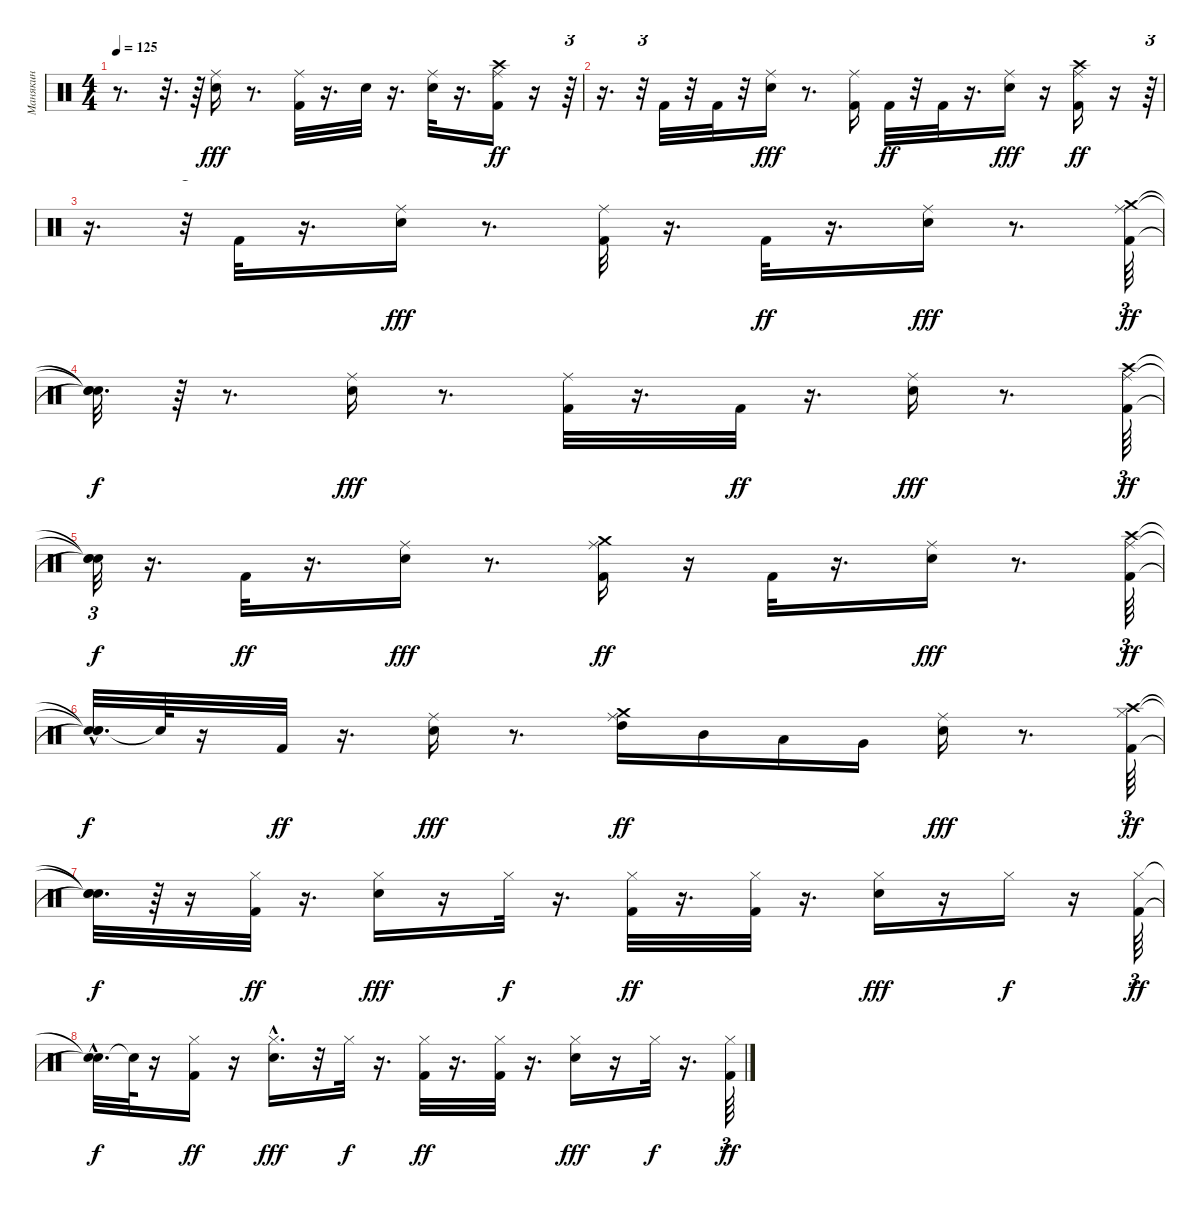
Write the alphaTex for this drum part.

\track ("Манякин" "Манякин") {instrument percussion}
\staff {score}
\articulation defaults
\ts (4 4)
\tempo 125
\clef neutral
\ks c
r.8{d dy ff} r.32{d} r.64 ("Snare (hit) 2" "Ride (middle)").16{dy fff} r.8{d} ("Kick (hit) 2" "Ride (middle)").32 r.16{d} "Snare (hit) 2".32 r.16{d} ("Snare (hit) 2" "Ride (middle)").32 r.16{d} ("Kick (hit) 2" "Ride (middle)" "Crash high (hit)").16{dy ff} r.16 r.64{tu (3 2)} |
r.16{d} r.32{tu (3 2)} "Kick (hit) 2".32 r.32 "Kick (hit) 2".32 r.32 ("Snare (hit) 2" "Ride (middle)").16{dy fff} r.8{d} ("Kick (hit) 2" "Ride (middle)").16 "Kick (hit) 2".32{dy ff} r.32 "Kick (hit) 2".32 r.16{d} ("Snare (hit) 2" "Ride (middle)").16{dy fff} r.16 ("Kick (hit) 2" "Ride (middle)" "Crash high (hit)").16{dy ff} r.16 r.64{tu (3 2)} |
r.16{d} r.32{tu (3 2)} "Kick (hit) 2".32 r.16{d} ("Snare (hit) 2" "Ride (middle)").16{dy fff} r.8{d} ("Kick (hit) 2" "Ride (middle)").32 r.16{d} "Kick (hit) 2".32{dy ff} r.16{d} ("Snare (hit) 2" "Ride (middle)").16{dy fff} r.8{d} ("Kick (hit) 2" "Ride (middle)" "Crash medium (hit)").64{tu (3 2) dy ff} |
("Snare (hit)"{t} "Snare (hit)"{t} "Snare (hit)"{t}).32{d dy f} r.64 r.8{d} ("Snare (hit) 2" "Ride (middle)").16{dy fff} r.8{d} ("Kick (hit) 2" "Ride (middle)").32 r.16{d} "Kick (hit) 2".32{dy ff} r.16{d} ("Snare (hit) 2" "Ride (middle)").16{dy fff} r.8{d} ("Kick (hit) 2" "Ride (middle)" "Crash high (hit)").64{tu (3 2) dy ff} |
("Snare (hit)"{t} "Snare (hit)"{t} "Snare (hit)"{t}).32{tu (3 2) dy f} r.16{d} "Kick (hit) 2".32{dy ff} r.16{d} ("Snare (hit) 2" "Ride (middle)").16{dy fff} r.8{d} ("Kick (hit) 2" "Ride (middle)" "Crash medium (hit)").16{dy ff} r.16 "Kick (hit) 2".32 r.16{d} ("Snare (hit) 2" "Ride (middle)").16{dy fff} r.8{d} ("Kick (hit) 2" "Ride (middle)" "Crash high (hit)").64{tu (3 2) dy ff} |
("Snare (hit)"{t} "Snare (hit)"{t} "Snare (hit)"{hac t}).32{d dy f} "Snare (hit)"{t}.64 r.16 "Kick (hit) 2".32{dy ff} r.16{d} ("Snare (hit) 2" "Ride (middle)").16{dy fff} r.8{d} ("High Tom (hit)" "Ride (middle)" "Crash medium (hit)").16{dy ff} "Mid Tom (hit)".16 "Low Tom (hit)".16 "Very Low Tom (hit)".16 ("Snare (hit) 2" "Ride (middle)").16{dy fff} r.8{d} ("Kick (hit) 2" "Hi-Hat (closed)" "Crash high (hit)").64{tu (3 2) dy ff} |
("Snare (hit)"{t} "Snare (hit)"{t} "Snare (hit)"{t}).32{d dy f} r.64 r.16 ("Kick (hit) 2" "Hi-Hat (closed)").32{dy ff} r.16{d} ("Snare (hit) 2" "Hi-Hat (closed)").16{dy fff} r.16 "Hi-Hat (closed)".32{dy f} r.16{d} ("Kick (hit) 2" "Hi-Hat (closed)").32{dy ff} r.16{d} ("Kick (hit) 2" "Hi-Hat (closed)").32 r.16{d} ("Snare (hit) 2" "Hi-Hat (closed)").16{dy fff} r.16 "Hi-Hat (closed)".16{dy f} r.16 ("Kick (hit) 2" "Hi-Hat (closed)").64{tu (3 2) dy ff} |
("Snare (hit)"{t} "Snare (hit)"{hac t}).32{d dy f} "Snare (hit)"{t}.64 r.16 ("Kick (hit) 2" "Hi-Hat (closed)").16{dy ff} r.16 ("Snare (hit) 2"{hac} "Hi-Hat (closed)").16{d dy fff} r.32 "Hi-Hat (closed)".32{dy f} r.16{d} ("Kick (hit) 2" "Hi-Hat (closed)").32{dy ff} r.16{d} ("Kick (hit) 2" "Hi-Hat (closed)").32 r.16{d} ("Snare (hit) 2" "Hi-Hat (closed)").16{dy fff} r.16 "Hi-Hat (closed)".32{dy f} r.16{d} ("Kick (hit) 2" "Hi-Hat (closed)").64{tu (3 2) dy ff}
